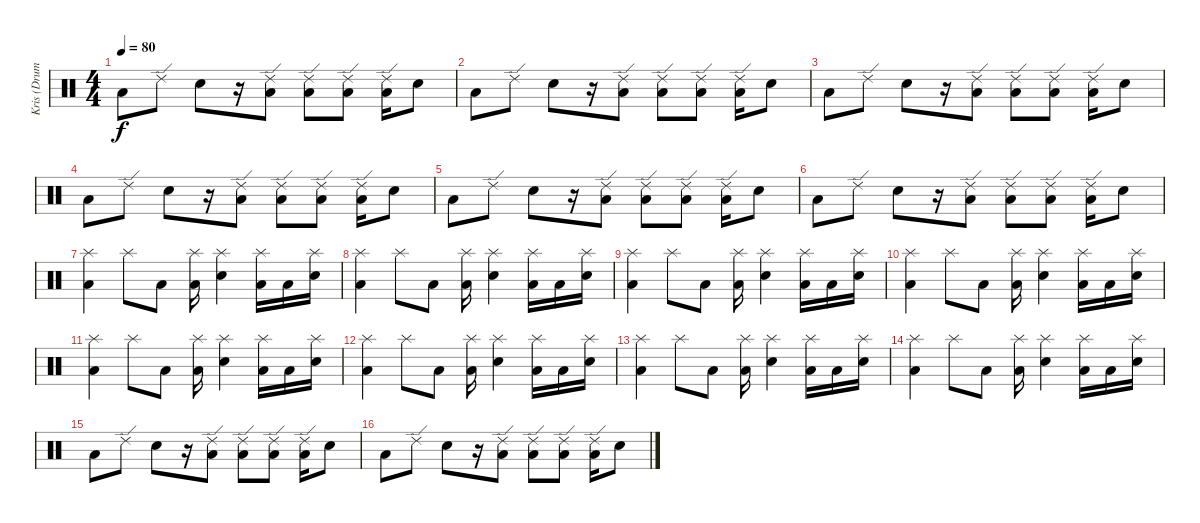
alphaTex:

\track ("Kris (Drums)" "Kris (Drum") {instrument percussion}
\staff {score}
\articulation defaults
\ts (4 4)
\tempo 80
\clef neutral
\ks c "Low Tom (hit)".8{dy f} "Ride (edge) 2".8 "Metronome (bell)".8
r.16 ("Ride (edge) 2" "Low Tom (hit)").8 ("Ride (edge) 2" "Low Tom (hit)").8 ("Ride (edge) 2" "Low Tom (hit)").8 ("Ride (edge) 2" "Low Tom (hit)").16 "Metronome (bell)".8 |
"Low Tom (hit)".8 "Ride (edge) 2".8 "Metronome (bell)".8 r.16 ("Ride (edge) 2" "Low Tom (hit)").8 ("Ride (edge) 2" "Low Tom (hit)").8 ("Ride (edge) 2" "Low Tom (hit)").8 ("Ride (edge) 2" "Low Tom (hit)").16 "Metronome (bell)".8 |
"Low Tom (hit)".8 "Ride (edge) 2".8 "Metronome (bell)".8 r.16 ("Ride (edge) 2" "Low Tom (hit)").8 ("Ride (edge) 2" "Low Tom (hit)").8 ("Ride (edge) 2" "Low Tom (hit)").8 ("Ride (edge) 2" "Low Tom (hit)").16 "Metronome (bell)".8 |
"Low Tom (hit)".8 "Ride (edge) 2".8 "Metronome (bell)".8 r.16 ("Ride (edge) 2" "Low Tom (hit)").8 ("Ride (edge) 2" "Low Tom (hit)").8 ("Ride (edge) 2" "Low Tom (hit)").8 ("Ride (edge) 2" "Low Tom (hit)").16 "Metronome (bell)".8 |
"Low Tom (hit)".8 "Ride (edge) 2".8 "Metronome (bell)".8 r.16 ("Ride (edge) 2" "Low Tom (hit)").8 ("Ride (edge) 2" "Low Tom (hit)").8 ("Ride (edge) 2" "Low Tom (hit)").8 ("Ride (edge) 2" "Low Tom (hit)").16 "Metronome (bell)".8 |
"Low Tom (hit)".8 "Ride (edge) 2".8 "Metronome (bell)".8 r.16 ("Ride (edge) 2" "Low Tom (hit)").8 ("Ride (edge) 2" "Low Tom (hit)").8 ("Ride (edge) 2" "Low Tom (hit)").8 ("Ride (edge) 2" "Low Tom (hit)").16 "Metronome (bell)".8 |
("Splash (hit)" "Low Tom (hit)").4 "Splash (hit)".8 "Low Tom (hit)".8 ("Splash (hit)" "Low Tom (hit)").16 ("Splash (hit)" "Metronome (bell)").4 ("Splash (hit)" "Low Tom (hit)").16 "Low Tom (hit)".16 ("Splash (hit)" "Metronome (bell)").16 |
("Splash (hit)" "Low Tom (hit)").4 "Splash (hit)".8 "Low Tom (hit)".8 ("Splash (hit)" "Low Tom (hit)").16 ("Splash (hit)" "Metronome (bell)").4 ("Splash (hit)" "Low Tom (hit)").16 "Low Tom (hit)".16 ("Splash (hit)" "Metronome (bell)").16 |
("Splash (hit)" "Low Tom (hit)").4 "Splash (hit)".8 "Low Tom (hit)".8 ("Splash (hit)" "Low Tom (hit)").16 ("Splash (hit)" "Metronome (bell)").4 ("Splash (hit)" "Low Tom (hit)").16 "Low Tom (hit)".16 ("Splash (hit)" "Metronome (bell)").16 |
("Splash (hit)" "Low Tom (hit)").4 "Splash (hit)".8 "Low Tom (hit)".8 ("Splash (hit)" "Low Tom (hit)").16 ("Splash (hit)" "Metronome (bell)").4 ("Splash (hit)" "Low Tom (hit)").16 "Low Tom (hit)".16 ("Splash (hit)" "Metronome (bell)").16 |
("Splash (hit)" "Low Tom (hit)").4 "Splash (hit)".8 "Low Tom (hit)".8 ("Splash (hit)" "Low Tom (hit)").16 ("Splash (hit)" "Metronome (bell)").4 ("Splash (hit)" "Low Tom (hit)").16 "Low Tom (hit)".16 ("Splash (hit)" "Metronome (bell)").16 |
("Splash (hit)" "Low Tom (hit)").4 "Splash (hit)".8 "Low Tom (hit)".8 ("Splash (hit)" "Low Tom (hit)").16 ("Splash (hit)" "Metronome (bell)").4 ("Splash (hit)" "Low Tom (hit)").16 "Low Tom (hit)".16 ("Splash (hit)" "Metronome (bell)").16 |
("Splash (hit)" "Low Tom (hit)").4 "Splash (hit)".8 "Low Tom (hit)".8 ("Splash (hit)" "Low Tom (hit)").16 ("Splash (hit)" "Metronome (bell)").4 ("Splash (hit)" "Low Tom (hit)").16 "Low Tom (hit)".16 ("Splash (hit)" "Metronome (bell)").16 |
("Splash (hit)" "Low Tom (hit)").4 "Splash (hit)".8 "Low Tom (hit)".8 ("Splash (hit)" "Low Tom (hit)").16 ("Splash (hit)" "Metronome (bell)").4 ("Splash (hit)" "Low Tom (hit)").16 "Low Tom (hit)".16 ("Splash (hit)" "Metronome (bell)").16 |
"Low Tom (hit)".8 "Ride (edge) 2".8 "Metronome (bell)".8 r.16 ("Ride (edge) 2" "Low Tom (hit)").8 ("Ride (edge) 2" "Low Tom (hit)").8 ("Ride (edge) 2" "Low Tom (hit)").8 ("Ride (edge) 2" "Low Tom (hit)").16 "Metronome (bell)".8 |
"Low Tom (hit)".8 "Ride (edge) 2".8 "Metronome (bell)".8 r.16 ("Ride (edge) 2" "Low Tom (hit)").8 ("Ride (edge) 2" "Low Tom (hit)").8 ("Ride (edge) 2" "Low Tom (hit)").8 ("Ride (edge) 2" "Low Tom (hit)").16 "Metronome (bell)".8
